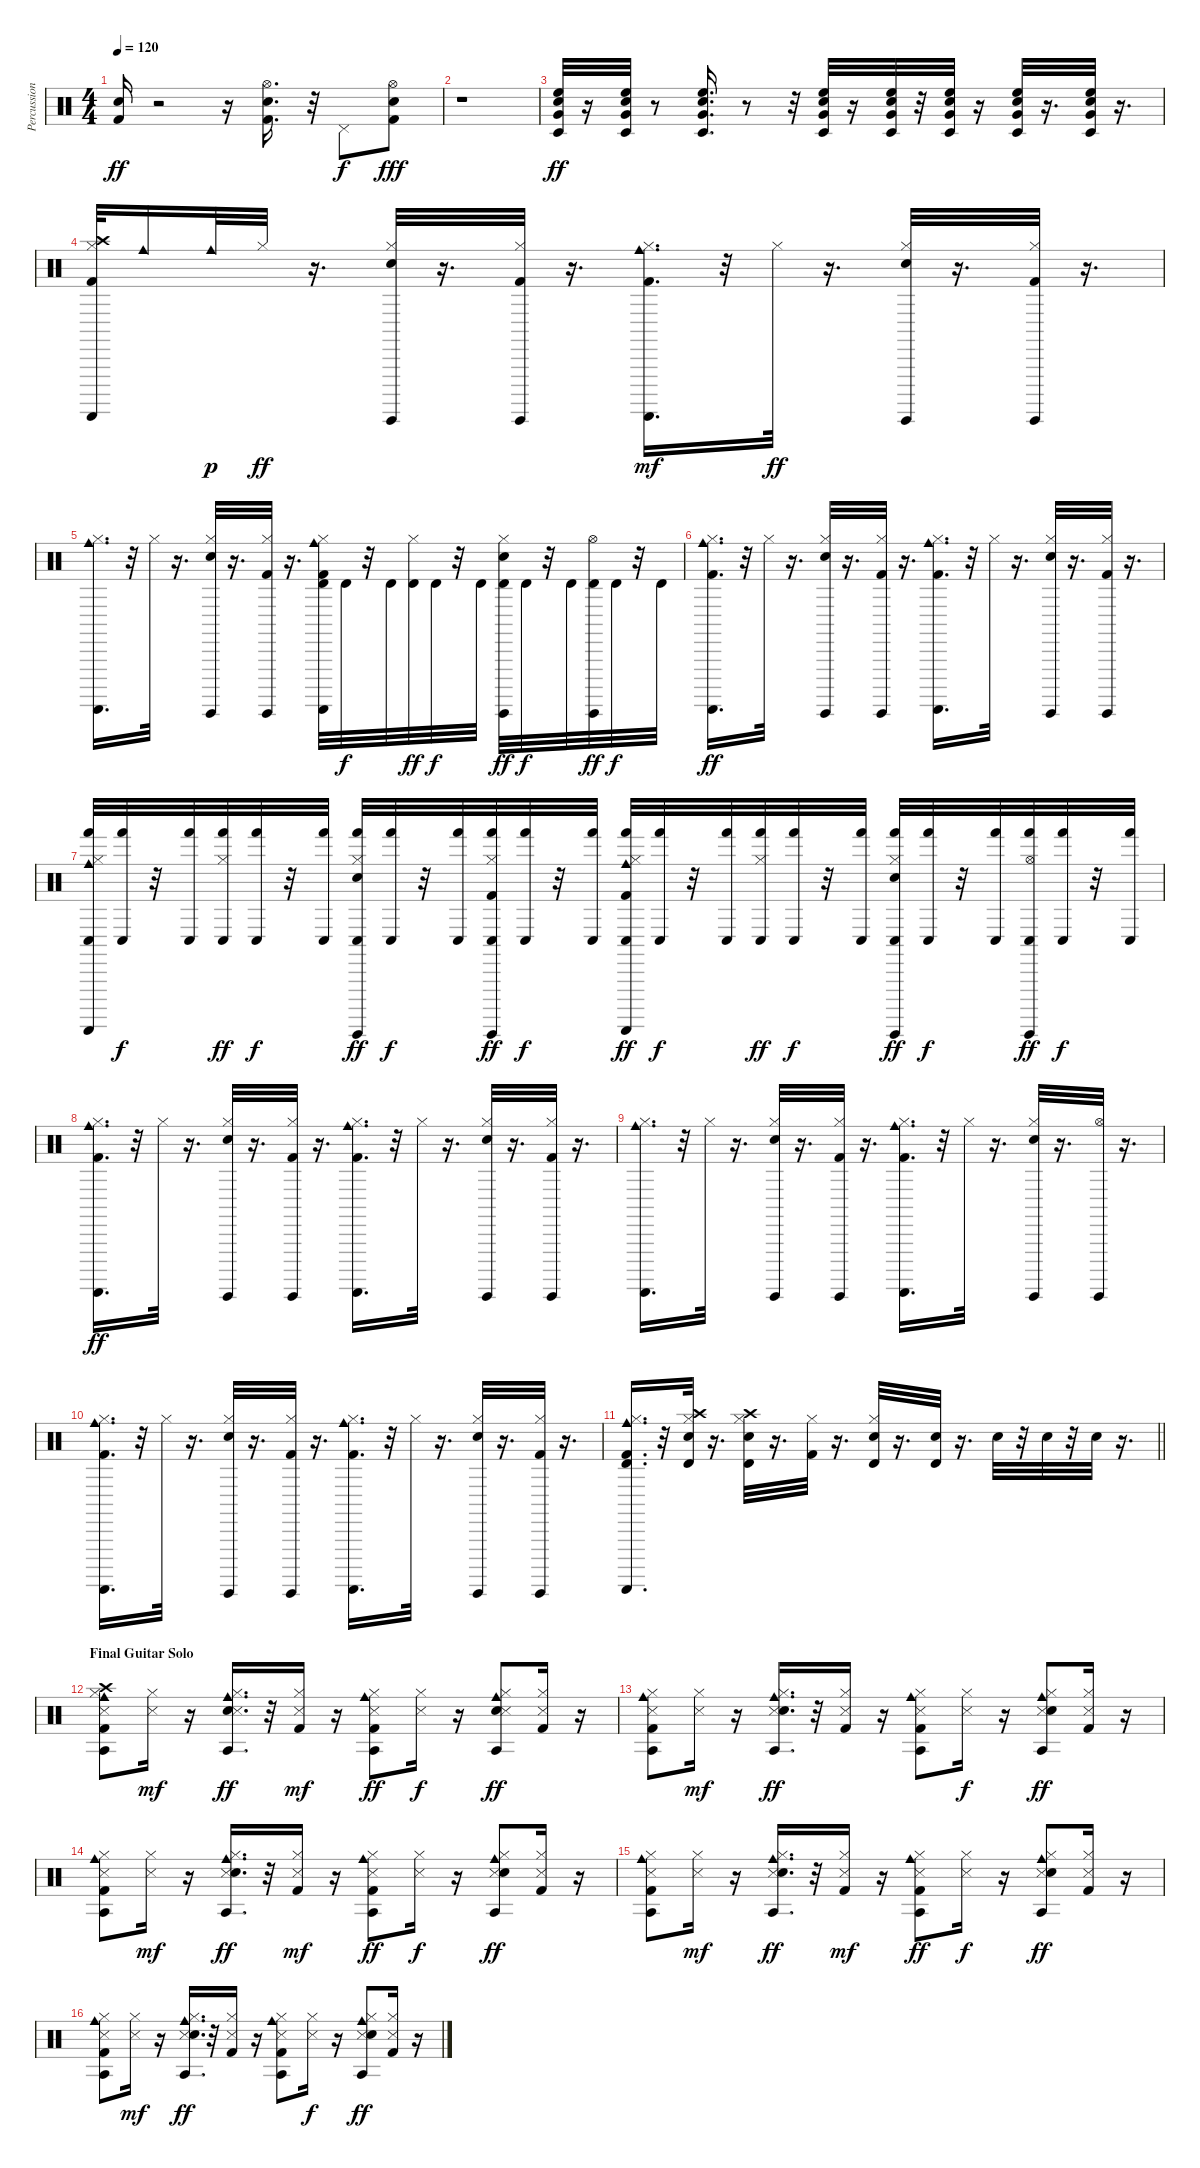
\track ("Percussion" "Percussion") {instrument percussion}
\staff {score}
\articulation defaults
\ts (4 4)
\tempo 120
\clef neutral
\ks c
("Kick (hit) 2" "Snare (hit) 2").16{dy ff} r.2 r.16 ("Snare (hit) 2" "Kick (hit) 2" "Hi-Hat (open)").16{d} r.32 "Pedal Hi-Hat (hit)".8{dy f} ("Kick (hit) 2" "Snare (hit) 2" "Hi-Hat (open)").8{dy fff} |
r.1 |
("Timbale low (hit)" "Electric Snare (hit)" "High Floor Tom (hit)" "Very Low Tom (hit)").32{dy ff} r.16 ("Very Low Tom (hit)" "Timbale low (hit)" "Electric Snare (hit)" "High Floor Tom (hit)").32 r.8 ("Very Low Tom (hit)" "Timbale low (hit)" "High Floor Tom (hit)" "Electric Snare (hit)").16{d} r.8 r.32 ("Very Low Tom (hit)" "Electric Snare (hit)" "Timbale low (hit)" "High Floor Tom (hit)").32 r.16 ("Very Low Tom (hit)" "Timbale low (hit)" "Electric Snare (hit)" "High Floor Tom (hit)").32 r.32 ("Very Low Tom (hit)" "High Floor Tom (hit)" "Timbale low (hit)" "Electric Snare (hit)").32 r.16 ("Very Low Tom (hit)" "High Floor Tom (hit)" "Electric Snare (hit)" "Timbale low (hit)").32 r.16{d} ("Very Low Tom (hit)" "Electric Snare (hit)" "High Floor Tom (hit)" "Timbale low (hit)").32 r.16{d} |
("Kick (hit) 2" "Hi-Hat (closed)" "Crash high (hit)" "Guiro (scrap-return)").32 "Cowbell medium (hit)".16 "Cowbell medium (hit)".32{dy p} "Hi-Hat (closed)".32{dy ff} r.16{d} ("Guiro (hit)" "Snare (hit) 2" "Hi-Hat (closed)").32 r.16{d} ("Hi-Hat (closed)" "Kick (hit) 2" "Guiro (hit)").32 r.16{d} ("Guiro (scrap-return)" "Kick (hit) 2" "Hi-Hat (closed)" "Cowbell medium (hit)").16{d dy mf} r.32 "Hi-Hat (closed)".32{dy ff} r.16{d} ("Hi-Hat (closed)" "Guiro (hit)" "Snare (hit) 2").32 r.16{d} ("Kick (hit) 2" "Guiro (hit)" "Hi-Hat (closed)").32 r.16{d} |
("Cowbell medium (hit)" "Guiro (scrap-return)" "Hi-Hat (closed)").16{d} r.32 "Hi-Hat (closed)".32 r.16{d} ("Guiro (hit)" "Snare (hit) 2" "Hi-Hat (closed)").32 r.16{d} ("Hi-Hat (closed)" "Kick (hit) 2" "Guiro (hit)").32 r.16{d} ("Guiro (scrap-return)" "Kick (hit) 2" "Hi-Hat (closed)" "Timbale high (hit)" "Cowbell medium (hit)").32 "Timbale high (hit)".32{dy f} r.32 "Timbale high (hit)".32 ("Timbale high (hit)" "Hi-Hat (closed)").32{dy ff} "Timbale high (hit)".32{dy f} r.32 "Timbale high (hit)".32 ("Timbale high (hit)" "Guiro (hit)" "Snare (hit) 2" "Hi-Hat (closed)").32{dy ff} "Timbale high (hit)".32{dy f} r.32 "Timbale high (hit)".32 ("Timbale high (hit)" "Hi-Hat (open)" "Guiro (hit)").32{dy ff} "Timbale high (hit)".32{dy f} r.32 "Timbale high (hit)".32 |
("Guiro (scrap-return)" "Kick (hit) 2" "Hi-Hat (closed)" "Cowbell medium (hit)").16{d dy ff} r.32 "Hi-Hat (closed)".32 r.16{d} ("Guiro (hit)" "Snare (hit) 2" "Hi-Hat (closed)").32 r.16{d} ("Hi-Hat (closed)" "Kick (hit) 2" "Guiro (hit)").32 r.16{d} ("Guiro (scrap-return)" "Kick (hit) 2" "Hi-Hat (closed)" "Cowbell medium (hit)").16{d} r.32 "Hi-Hat (closed)".32 r.16{d} ("Guiro (hit)" "Snare (hit) 2" "Hi-Hat (closed)").32 r.16{d} ("Guiro (hit)" "Hi-Hat (closed)" "Kick (hit) 2").32 r.16{d} |
("Conga low (hit)" "Guiro (scrap-return)" "Hi-Hat (closed)" "Hand (hit)" "Cowbell medium (hit)").32 ("Conga low (hit)" "Hand (hit)").32{dy f} r.32 ("Conga low (hit)" "Hand (hit)").32 ("Conga low (hit)" "Hi-Hat (closed)" "Hand (hit)").32{dy ff} ("Conga low (hit)" "Hand (hit)").32{dy f} r.32 ("Conga low (hit)" "Hand (hit)").32 ("Conga low (hit)" "Hand (hit)" "Guiro (hit)" "Snare (hit) 2" "Hi-Hat (closed)").32{dy ff} ("Conga low (hit)" "Hand (hit)").32{dy f} r.32 ("Conga low (hit)" "Hand (hit)").32 ("Conga low (hit)" "Hand (hit)" "Hi-Hat (closed)" "Kick (hit) 2" "Guiro (hit)").32{dy ff} ("Conga low (hit)" "Hand (hit)").32{dy f} r.32 ("Conga low (hit)" "Hand (hit)").32 ("Cowbell medium (hit)" "Hand (hit)" "Guiro (scrap-return)" "Kick (hit) 2" "Hi-Hat (closed)" "Conga low (hit)").32{dy ff} ("Conga low (hit)" "Hand (hit)").32{dy f} r.32 ("Conga low (hit)" "Hand (hit)").32 ("Conga low (hit)" "Hand (hit)" "Hi-Hat (closed)").32{dy ff} ("Hand (hit)" "Conga low (hit)").32{dy f} r.32 ("Conga low (hit)" "Hand (hit)").32 ("Hand (hit)" "Guiro (hit)" "Snare (hit) 2" "Hi-Hat (closed)" "Conga low (hit)").32{dy ff} ("Conga low (hit)" "Hand (hit)").32{dy f} r.32 ("Conga low (hit)" "Hand (hit)").32 ("Conga low (hit)" "Hand (hit)" "Hi-Hat (open)" "Guiro (hit)").32{dy ff} ("Conga low (hit)" "Hand (hit)").32{dy f} r.32 ("Conga low (hit)" "Hand (hit)").32 |
("Guiro (scrap-return)" "Kick (hit) 2" "Hi-Hat (closed)" "Cowbell medium (hit)").16{d dy ff} r.32 "Hi-Hat (closed)".32 r.16{d} ("Guiro (hit)" "Snare (hit) 2" "Hi-Hat (closed)").32 r.16{d} ("Hi-Hat (closed)" "Kick (hit) 2" "Guiro (hit)").32 r.16{d} ("Cowbell medium (hit)" "Guiro (scrap-return)" "Kick (hit) 2" "Hi-Hat (closed)").16{d} r.32 "Hi-Hat (closed)".32 r.16{d} ("Guiro (hit)" "Snare (hit) 2" "Hi-Hat (closed)").32 r.16{d} ("Guiro (hit)" "Hi-Hat (closed)" "Kick (hit) 2").32 r.16{d} |
("Cowbell medium (hit)" "Guiro (scrap-return)" "Hi-Hat (closed)").16{d} r.32 "Hi-Hat (closed)".32 r.16{d} ("Guiro (hit)" "Snare (hit) 2" "Hi-Hat (closed)").32 r.16{d} ("Hi-Hat (closed)" "Kick (hit) 2" "Guiro (hit)").32 r.16{d} ("Guiro (scrap-return)" "Kick (hit) 2" "Hi-Hat (closed)" "Cowbell medium (hit)").16{d} r.32 "Hi-Hat (closed)".32 r.16{d} ("Guiro (hit)" "Snare (hit) 2" "Hi-Hat (closed)").32 r.16{d} ("Hi-Hat (open)" "Guiro (hit)").32 r.16{d} |
("Guiro (scrap-return)" "Kick (hit) 2" "Hi-Hat (closed)" "Cowbell medium (hit)").16{d} r.32 "Hi-Hat (closed)".32 r.16{d} ("Guiro (hit)" "Snare (hit) 2" "Hi-Hat (closed)").32 r.16{d} ("Hi-Hat (closed)" "Kick (hit) 2" "Guiro (hit)").32 r.16{d} ("Guiro (scrap-return)" "Kick (hit) 2" "Hi-Hat (closed)" "Cowbell medium (hit)").16{d} r.32 "Hi-Hat (closed)".32 r.16{d} ("Guiro (hit)" "Snare (hit) 2" "Hi-Hat (closed)").32 r.16{d} ("Guiro (hit)" "Hi-Hat (closed)" "Kick (hit) 2").32 r.16{d} |
\barLineRight lightlight
("Hi-Hat (closed)" "Guiro (scrap-return)" "Kick (hit) 2" "Timbale high (hit)" "Cowbell medium (hit)").16{d} r.32 ("Crash high (hit)" "Hi-Hat (closed)" "Electric Snare (hit)" "Timbale high (hit)").32 r.16{d} ("Crash high (hit)" "Hi-Hat (closed)" "Electric Snare (hit)" "Timbale high (hit)").32 r.16{d} ("Hi-Hat (closed)" "Kick (hit) 2").32 r.16{d} ("Hi-Hat (closed)" "Timbale high (hit)" "Electric Snare (hit)").32 r.16{d} ("Electric Snare (hit)" "Timbale high (hit)").32 r.16{d} "Electric Snare (hit)".32 r.32 "Electric Snare (hit)".32 r.32 "Electric Snare (hit)".32 r.16{d} |
\section ("" "Final Guitar Solo")
("Kick (hit) 2" "Hi-Hat (closed)" "Agogo tow (hit)" "Crash high (hit)" "Cowbell medium (hit)" "Snare (side stick) 3").8 ("Hi-Hat (closed)" "Snare (side stick) 3").16{dy mf} r.16 ("Snare (hit) 2" "Hi-Hat (closed)" "Agogo tow (hit)" "Cowbell medium (hit)" "Snare (side stick) 3").16{d dy ff} r.32 ("Kick (hit) 2" "Hi-Hat (closed)" "Snare (side stick) 3").16{dy mf} r.16 ("Kick (hit) 2" "Hi-Hat (closed)" "Agogo tow (hit)" "Cowbell medium (hit)" "Snare (side stick) 3").8{dy ff} ("Hi-Hat (closed)" "Snare (side stick) 3").16{dy f} r.16 ("Snare (hit) 2" "Hi-Hat (closed)" "Agogo tow (hit)" "Cowbell medium (hit)" "Snare (side stick) 3").8{dy ff} ("Kick (hit) 2" "Hi-Hat (closed)" "Snare (side stick) 3").16 r.16 |
("Cowbell medium (hit)" "Snare (side stick) 3" "Hi-Hat (closed)" "Agogo tow (hit)" "Kick (hit) 2").8 ("Snare (side stick) 3" "Hi-Hat (closed)").16{dy mf} r.16 ("Cowbell medium (hit)" "Snare (side stick) 3" "Hi-Hat (closed)" "Agogo tow (hit)" "Snare (hit) 2").16{d dy ff} r.32 ("Snare (side stick) 3" "Hi-Hat (closed)" "Kick (hit) 2").16 r.16 ("Cowbell medium (hit)" "Snare (side stick) 3" "Hi-Hat (closed)" "Agogo tow (hit)" "Kick (hit) 2").8 ("Snare (side stick) 3" "Hi-Hat (closed)").16{dy f} r.16 ("Cowbell medium (hit)" "Snare (side stick) 3" "Hi-Hat (closed)" "Agogo tow (hit)" "Snare (hit) 2").8{dy ff} ("Snare (side stick) 3" "Hi-Hat (closed)" "Kick (hit) 2").16 r.16 |
("Snare (side stick) 3" "Agogo tow (hit)" "Kick (hit) 2" "Cowbell medium (hit)" "Hi-Hat (closed)").8 ("Snare (side stick) 3" "Hi-Hat (closed)").16{dy mf} r.16 ("Snare (side stick) 3" "Agogo tow (hit)" "Snare (hit) 2" "Cowbell medium (hit)" "Hi-Hat (closed)").16{d dy ff} r.32 ("Snare (side stick) 3" "Kick (hit) 2" "Hi-Hat (closed)").16{dy mf} r.16 ("Snare (side stick) 3" "Agogo tow (hit)" "Kick (hit) 2" "Cowbell medium (hit)" "Hi-Hat (closed)").8{dy ff} ("Snare (side stick) 3" "Hi-Hat (closed)").16{dy f} r.16 ("Snare (side stick) 3" "Agogo tow (hit)" "Snare (hit) 2" "Cowbell medium (hit)" "Hi-Hat (closed)").8{dy ff} ("Snare (side stick) 3" "Kick (hit) 2" "Hi-Hat (closed)").16 r.16 |
("Cowbell medium (hit)" "Agogo tow (hit)" "Snare (side stick) 3" "Kick (hit) 2" "Hi-Hat (closed)").8 ("Snare (side stick) 3" "Hi-Hat (closed)").16{dy mf} r.16 ("Cowbell medium (hit)" "Agogo tow (hit)" "Snare (side stick) 3" "Snare (hit) 2" "Hi-Hat (closed)").16{d dy ff} r.32 ("Snare (side stick) 3" "Kick (hit) 2" "Hi-Hat (closed)").16{dy mf} r.16 ("Cowbell medium (hit)" "Agogo tow (hit)" "Snare (side stick) 3" "Kick (hit) 2" "Hi-Hat (closed)").8{dy ff} ("Snare (side stick) 3" "Hi-Hat (closed)").16{dy f} r.16 ("Cowbell medium (hit)" "Agogo tow (hit)" "Snare (side stick) 3" "Snare (hit) 2" "Hi-Hat (closed)").8{dy ff} ("Snare (side stick) 3" "Kick (hit) 2" "Hi-Hat (closed)").16 r.16 |
("Hi-Hat (closed)" "Cowbell medium (hit)" "Snare (side stick) 3" "Agogo tow (hit)" "Kick (hit) 2").8 ("Hi-Hat (closed)" "Snare (side stick) 3").16{dy mf} r.16 ("Hi-Hat (closed)" "Cowbell medium (hit)" "Snare (side stick) 3" "Agogo tow (hit)" "Snare (hit) 2").16{d dy ff} r.32 ("Hi-Hat (closed)" "Snare (side stick) 3" "Kick (hit) 2").16 r.16 ("Hi-Hat (closed)" "Cowbell medium (hit)" "Snare (side stick) 3" "Agogo tow (hit)" "Kick (hit) 2").8 ("Hi-Hat (closed)" "Snare (side stick) 3").16{dy f} r.16 ("Hi-Hat (closed)" "Cowbell medium (hit)" "Snare (side stick) 3" "Agogo tow (hit)" "Snare (hit) 2").8{dy ff} ("Hi-Hat (closed)" "Snare (side stick) 3" "Kick (hit) 2").16 r.16
